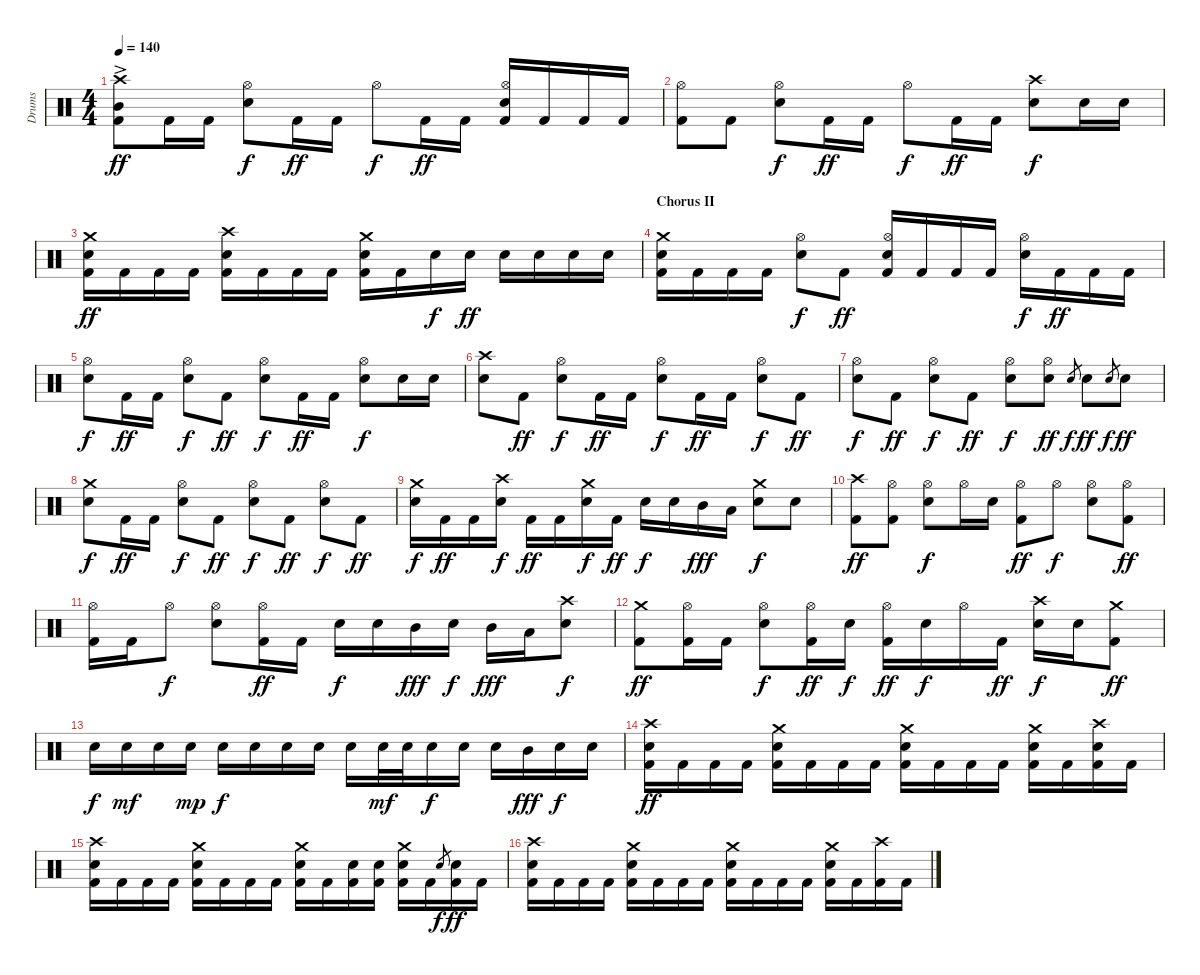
\track ("Drums" "Drums") {instrument percussion}
\staff {score}
\articulation defaults
\ts (4 4)
\tempo 140
\clef neutral
\ks c
("Crash high (hit)"{ac} "Mid Tom (hit)"{ac} "Kick (hit) 2").8{dy ff} "Kick (hit) 2".16 "Kick (hit) 2".16 ("Hi-Hat (open)" "Snare (hit) 2").8{dy f} "Kick (hit) 2".16{dy ff} "Kick (hit) 2".16 "Hi-Hat (open)".8{dy f} "Kick (hit) 2".16{dy ff} "Kick (hit) 2".16 ("Hi-Hat (open)" "Snare (hit) 2" "Kick (hit) 2").16 "Kick (hit) 2".16 "Kick (hit) 2".16 "Kick (hit) 2".16 |
("Hi-Hat (open)" "Kick (hit) 2").8 "Kick (hit) 2".8 ("Hi-Hat (open)" "Snare (hit) 2").8{dy f} "Kick (hit) 2".16{dy ff} "Kick (hit) 2".16 "Hi-Hat (open)".8{dy f} "Kick (hit) 2".16{dy ff} "Kick (hit) 2".16 ("Crash high (hit)" "Snare (hit) 2").8{dy f} "Snare (hit) 2".16 "Snare (hit) 2".16 |
("Crash medium (hit)" "Snare (hit) 2" "Kick (hit) 2").16{dy ff} "Kick (hit) 2".16 "Kick (hit) 2".16 "Kick (hit) 2".16 ("Crash high (hit)" "Snare (hit) 2" "Kick (hit) 2").16 "Kick (hit) 2".16 "Kick (hit) 2".16 "Kick (hit) 2".16 ("Crash medium (hit)" "Snare (hit) 2" "Kick (hit) 2").16 "Kick (hit) 2".16 "Snare (hit) 2".16{dy f} "Snare (hit) 2".16{dy ff} "Snare (hit) 2".16 "Snare (hit) 2".16 "Snare (hit) 2".16 "Snare (hit) 2".16 |
\section ("" "Chorus II")
("Crash medium (hit)" "Snare (hit) 2" "Kick (hit) 2").16 "Kick (hit) 2".16 "Kick (hit) 2".16 "Kick (hit) 2".16 ("Hi-Hat (open)" "Snare (hit) 2").8{dy f} "Kick (hit) 2".8{dy ff} ("Hi-Hat (open)" "Snare (hit) 2" "Kick (hit) 2").16 "Kick (hit) 2".16 "Kick (hit) 2".16 "Kick (hit) 2".16 ("Hi-Hat (open)" "Snare (hit) 2").16{dy f} "Kick (hit) 2".16{dy ff} "Kick (hit) 2".16 "Kick (hit) 2".16 |
("Hi-Hat (open)" "Snare (hit) 2").8{dy f} "Kick (hit) 2".16{dy ff} "Kick (hit) 2".16 ("Hi-Hat (open)" "Snare (hit) 2").8{dy f} "Kick (hit) 2".8{dy ff} ("Hi-Hat (open)" "Snare (hit) 2").8{dy f} "Kick (hit) 2".16{dy ff} "Kick (hit) 2".16 ("Hi-Hat (open)" "Snare (hit) 2").8{dy f} "Snare (hit) 2".16 "Snare (hit) 2".16 |
("Crash high (hit)" "Snare (hit) 2").8 "Kick (hit) 2".8{dy ff} ("Hi-Hat (open)" "Snare (hit) 2").8{dy f} "Kick (hit) 2".16{dy ff} "Kick (hit) 2".16 ("Hi-Hat (open)" "Snare (hit) 2").8{dy f} "Kick (hit) 2".16{dy ff} "Kick (hit) 2".16 ("Hi-Hat (open)" "Snare (hit) 2").8{dy f} "Kick (hit) 2".8{dy ff} |
("Hi-Hat (open)" "Snare (hit) 2").8{dy f} "Kick (hit) 2".8{dy ff} ("Hi-Hat (open)" "Snare (hit) 2").8{dy f} "Kick (hit) 2".8{dy ff} ("Hi-Hat (open)" "Snare (hit) 2").8{dy f} ("Hi-Hat (open)" "Snare (hit) 2").8{dy ff} "Snare (hit) 2".8{gr dy f} "Snare (hit) 2".8{dy ff} "Snare (hit) 2".8{gr dy f} "Snare (hit) 2".8{dy ff} |
("Crash medium (hit)" "Snare (hit) 2").8{dy f} "Kick (hit) 2".16{dy ff} "Kick (hit) 2".16 ("Hi-Hat (open)" "Snare (hit) 2").8{dy f} "Kick (hit) 2".8{dy ff} ("Hi-Hat (open)" "Snare (hit) 2").8{dy f} "Kick (hit) 2".8{dy ff} ("Hi-Hat (open)" "Snare (hit) 2").8{dy f} "Kick (hit) 2".8{dy ff} |
("Crash medium (hit)" "Snare (hit) 2").16{dy f} "Kick (hit) 2".16{dy ff} "Kick (hit) 2".16 ("Crash high (hit)" "Snare (hit) 2").16{dy f} "Kick (hit) 2".16{dy ff} "Kick (hit) 2".16 ("Crash medium (hit)" "Snare (hit) 2").16{dy f} "Kick (hit) 2".16{dy ff} "Snare (hit) 2".16{dy f} "Snare (hit) 2".16 "Mid Tom (hit)".16{dy fff} "Low Tom (hit)".16 ("Crash medium (hit)" "Snare (hit) 2").8{dy f} "Snare (hit) 2".8 |
("Crash high (hit)" "Kick (hit) 2").8{dy ff} ("Hi-Hat (open)" "Kick (hit) 2").8 ("Hi-Hat (open)" "Snare (hit) 2").8{dy f} "Hi-Hat (open)".16 "Snare (hit) 2".16 ("Hi-Hat (open)" "Kick (hit) 2").8{dy ff} "Hi-Hat (open)".8{dy f} ("Hi-Hat (open)" "Snare (hit) 2").8 ("Hi-Hat (open)" "Kick (hit) 2").8{dy ff} |
("Hi-Hat (open)" "Kick (hit) 2").16 "Kick (hit) 2".16 "Hi-Hat (open)".8{dy f} ("Hi-Hat (open)" "Snare (hit) 2").8 ("Hi-Hat (open)" "Kick (hit) 2").16{dy ff} "Kick (hit) 2".16 "Snare (hit) 2".16{dy f} "Snare (hit) 2".16 "Mid Tom (hit)".16{dy fff} "Snare (hit) 2".16{dy f} "Mid Tom (hit)".16{dy fff} "Low Tom (hit)".16 ("Crash high (hit)" "Snare (hit) 2").8{dy f} |
("Crash medium (hit)" "Kick (hit) 2").8{dy ff} ("Hi-Hat (open)" "Kick (hit) 2").16 "Kick (hit) 2".16 ("Hi-Hat (open)" "Snare (hit) 2").8{dy f} ("Hi-Hat (open)" "Kick (hit) 2").16{dy ff} "Snare (hit) 2".16{dy f} ("Hi-Hat (open)" "Kick (hit) 2").16{dy ff} "Snare (hit) 2".16{dy f} "Hi-Hat (open)".16 "Kick (hit) 2".16{dy ff} ("Crash high (hit)" "Snare (hit) 2").16{dy f} "Snare (hit) 2".16 ("Crash medium (hit)" "Kick (hit) 2").8{dy ff} |
"Snare (hit) 2".16{dy f} "Snare (hit) 2".16{dy mf} "Snare (hit) 2".16 "Snare (hit) 2".16{dy mp} "Snare (hit) 2".16{dy f} "Snare (hit) 2".16 "Snare (hit) 2".16 "Snare (hit) 2".16 "Snare (hit) 2".16 "Snare (hit) 2".32{dy mf} "Snare (hit) 2".32 "Snare (hit) 2".16{dy f} "Snare (hit) 2".16 "Snare (hit) 2".16 "Mid Tom (hit)".16{dy fff} "Snare (hit) 2".16{dy f} "Snare (hit) 2".16 |
("Crash high (hit)" "Snare (hit) 2" "Kick (hit) 2").16{dy ff} "Kick (hit) 2".16 "Kick (hit) 2".16 "Kick (hit) 2".16 ("Crash medium (hit)" "Snare (hit) 2" "Kick (hit) 2").16 "Kick (hit) 2".16 "Kick (hit) 2".16 "Kick (hit) 2".16 ("Crash medium (hit)" "Snare (hit) 2" "Kick (hit) 2").16 "Kick (hit) 2".16 "Kick (hit) 2".16 "Kick (hit) 2".16 ("Crash medium (hit)" "Snare (hit) 2" "Kick (hit) 2").16 "Kick (hit) 2".16 ("Crash high (hit)" "Snare (hit) 2" "Kick (hit) 2").16 "Kick (hit) 2".16 |
("Crash high (hit)" "Snare (hit) 2" "Kick (hit) 2").16 "Kick (hit) 2".16 "Kick (hit) 2".16 "Kick (hit) 2".16 ("Crash medium (hit)" "Snare (hit) 2" "Kick (hit) 2").16 "Kick (hit) 2".16 "Kick (hit) 2".16 "Kick (hit) 2".16 ("Crash medium (hit)" "Snare (hit) 2" "Kick (hit) 2").16 "Kick (hit) 2".16 ("Snare (hit) 2" "Kick (hit) 2").16 ("Snare (hit) 2" "Kick (hit) 2").16 ("Crash medium (hit)" "Snare (hit) 2" "Kick (hit) 2").16 "Kick (hit) 2".16 "Snare (hit) 2".8{gr dy f} ("Snare (hit) 2" "Kick (hit) 2").16{dy ff} "Kick (hit) 2".16 |
("Crash high (hit)" "Snare (hit) 2" "Kick (hit) 2").16 "Kick (hit) 2".16 "Kick (hit) 2".16 "Kick (hit) 2".16 ("Crash medium (hit)" "Snare (hit) 2" "Kick (hit) 2").16 "Kick (hit) 2".16 "Kick (hit) 2".16 "Kick (hit) 2".16 ("Crash medium (hit)" "Snare (hit) 2" "Kick (hit) 2").16 "Kick (hit) 2".16 "Kick (hit) 2".16 "Kick (hit) 2".16 ("Crash medium (hit)" "Snare (hit) 2" "Kick (hit) 2").16 "Kick (hit) 2".16 ("Crash high (hit)" "Kick (hit) 2").16 "Kick (hit) 2".16
